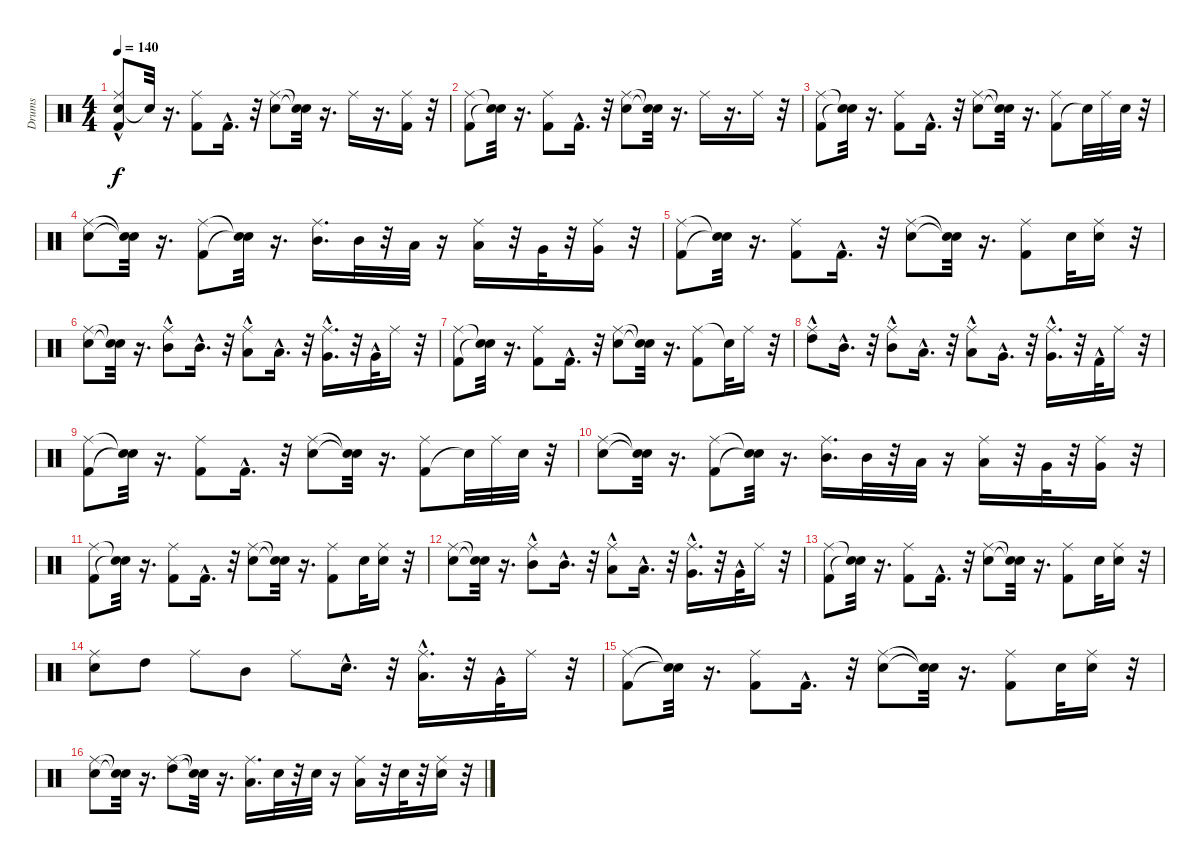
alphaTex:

\track ("Drums" "Drums") {instrument percussion}
\staff {score}
\articulation defaults
\ts (4 4)
\tempo 140
\clef neutral
\ks c
("Snare (hit) 2"{hac} "Ride (middle)" "Kick (hit) 2"{hac}).8{dy f} "Snare (hit)"{t}.32 r.16{d} ("Kick (hit) 2" "Ride (middle)").8 "Kick (hit) 2"{hac}.16{d} r.32 ("Ride (middle)" "Snare (hit) 2").8 ("Snare (hit)"{t} "Snare (hit)"{t}).32 r.16{d} "Ride (middle)".16 r.16{d} ("Kick (hit) 2" "Ride (middle)").16 r.32 |
("Ride (middle)" "Kick (hit) 2").8 ("Snare (hit)"{t} "Snare (hit)"{t}).32 r.16{d} ("Kick (hit) 2" "Ride (middle)").8 "Kick (hit) 2"{hac}.16{d} r.32 ("Ride (middle)" "Snare (hit) 2").8 ("Snare (hit)"{t} "Snare (hit)"{t}).32 r.16{d} "Ride (middle)".16 r.16{d} "Ride (middle)".16 r.32 |
("Kick (hit) 2" "Ride (middle)").8 ("Snare (hit)"{t} "Snare (hit)"{t}).32 r.16{d} ("Ride (middle)" "Kick (hit) 2").8 "Kick (hit) 2"{hac}.16{d} r.32 ("Ride (middle)" "Snare (hit) 2").8 ("Snare (hit)"{t} "Snare (hit)"{t}).32 r.16{d} ("Kick (hit) 2" "Ride (middle)").8 "Snare (hit)"{t}.32 "Ride (middle)".32 "Snare (hit) 2".32 r.32 |
("Ride (middle)" "Snare (hit) 2").8 ("Snare (hit)"{t} "Snare (hit)"{t}).32 r.16{d} ("Ride (middle)" "Kick (hit) 2").8 ("Snare (hit)"{t} "Snare (hit)"{t}).32 r.16{d} ("Ride (middle)" "Mid Tom (hit)").16{d} "Mid Tom (hit)".32 r.32 "Low Tom (hit)".32 r.16 ("Ride (middle)" "Low Tom (hit)").16 r.32 "Very Low Tom (hit)".32 r.32 ("Very Low Tom (hit)" "Ride (middle)").16 r.32 |
("Kick (hit) 2" "Ride (middle)").8 ("Snare (hit)"{t} "Snare (hit)"{t}).32 r.16{d} ("Kick (hit) 2" "Ride (middle)").8 "Kick (hit) 2"{hac}.16{d} r.32 ("Snare (hit) 2" "Ride (middle)").8 ("Snare (hit)"{t} "Snare (hit)"{t}).32 r.16{d} ("Kick (hit) 2" "Ride (middle)").8 "Snare (hit) 2".32 ("Snare (hit) 2" "Ride (middle)").16 r.32 |
("Ride (middle)" "Snare (hit) 2").8 ("Snare (hit)"{t} "Snare (hit)"{t}).32 r.16{d} ("Mid Tom (hit)"{hac} "Ride (middle)").8 "Mid Tom (hit)"{hac}.16{d} r.32 ("Low Tom (hit)"{hac} "Ride (middle)").8 "Low Tom (hit)"{hac}.16{d} r.32 ("Ride (middle)" "Very Low Tom (hit)"{hac}).16{d} r.32 "Very Low Tom (hit)"{hac}.32 "Ride (middle)".16 r.32 |
("Ride (middle)" "Kick (hit) 2").8 ("Snare (hit)"{t} "Snare (hit)"{t}).32 r.16{d} ("Ride (middle)" "Kick (hit) 2").8 "Kick (hit) 2"{hac}.16{d} r.32 ("Ride (middle)" "Snare (hit) 2").8 ("Snare (hit)"{t} "Snare (hit)"{t}).32 r.16{d} ("Ride (middle)" "Kick (hit) 2").8 "Snare (hit)"{t}.32 "Ride (middle)".16 r.32 |
("High Tom (hit)"{hac} "Ride (middle)").8 "Mid Tom (hit)"{hac}.16{d} r.32 ("Mid Tom (hit)"{hac} "Ride (middle)").8 "Low Tom (hit)"{hac}.16{d} r.32 ("Ride (middle)" "Low Tom (hit)"{hac}).8 "Very Low Tom (hit)"{hac}.16{d} r.32 ("Very Low Tom (hit)"{hac} "Ride (middle)").16{d} r.32 "Kick (hit) 2"{hac}.32 "Ride (middle)".16 r.32 |
("Kick (hit) 2" "Ride (middle)").8 ("Snare (hit)"{t} "Snare (hit)"{t}).32 r.16{d} ("Ride (middle)" "Kick (hit) 2").8 "Kick (hit) 2"{hac}.16{d} r.32 ("Snare (hit) 2" "Ride (middle)").8 ("Snare (hit)"{t} "Snare (hit)"{t}).32 r.16{d} ("Kick (hit) 2" "Ride (middle)").8 "Snare (hit)"{t}.32 "Ride (middle)".32 "Snare (hit) 2".32 r.32 |
("Snare (hit) 2" "Ride (middle)").8 ("Snare (hit)"{t} "Snare (hit)"{t}).32 r.16{d} ("Ride (middle)" "Kick (hit) 2").8 ("Snare (hit)"{t} "Snare (hit)"{t}).32 r.16{d} ("Mid Tom (hit)" "Ride (middle)").16{d} "Mid Tom (hit)".32 r.32 "Low Tom (hit)".32 r.16 ("Ride (middle)" "Low Tom (hit)").16 r.32 "Very Low Tom (hit)".32 r.32 ("Ride (middle)" "Very Low Tom (hit)").16 r.32 |
("Kick (hit) 2" "Ride (middle)").8 ("Snare (hit)"{t} "Snare (hit)"{t}).32 r.16{d} ("Kick (hit) 2" "Ride (middle)").8 "Kick (hit) 2"{hac}.16{d} r.32 ("Ride (middle)" "Snare (hit) 2").8 ("Snare (hit)"{t} "Snare (hit)"{t}).32 r.16{d} ("Ride (middle)" "Kick (hit) 2").8 "Snare (hit) 2".32 ("Ride (middle)" "Snare (hit) 2").16 r.32 |
("Ride (middle)" "Snare (hit) 2").8 ("Snare (hit)"{t} "Snare (hit)"{t}).32 r.16{d} ("Ride (middle)" "Mid Tom (hit)"{hac}).8 "Mid Tom (hit)"{hac}.16{d} r.32 ("Low Tom (hit)"{hac} "Ride (middle)").8 "Low Tom (hit)"{hac}.16{d} r.32 ("Ride (middle)" "Very Low Tom (hit)"{hac}).16{d} r.32 "Very Low Tom (hit)"{hac}.32 "Ride (middle)".16 r.32 |
("Ride (middle)" "Kick (hit) 2").8 ("Snare (hit)"{t} "Snare (hit)"{t}).32 r.16{d} ("Kick (hit) 2" "Ride (middle)").8 "Kick (hit) 2"{hac}.16{d} r.32 ("Snare (hit) 2" "Ride (middle)").8 ("Snare (hit)"{t} "Snare (hit)"{t}).32 r.16{d} ("Ride (middle)" "Kick (hit) 2").8 "Snare (hit) 2".32 ("Ride (middle)" "Snare (hit) 2").16 r.32 |
("Ride (middle)" "Snare (hit) 2").8 "High Tom (hit)".8 "Ride (middle)".8 "Mid Tom (hit)".8 "Ride (middle)".8 "Snare (hit) 2"{hac}.16{d} r.32 ("Ride (middle)" "Low Tom (hit)"{hac}).16{d} r.32 "Very Low Tom (hit)"{hac}.32 "Ride (middle)".16 r.32 |
("Ride (middle)" "Kick (hit) 2").8 ("Snare (hit)"{t} "Snare (hit)"{t}).32 r.16{d} ("Ride (middle)" "Kick (hit) 2").8 "Kick (hit) 2"{hac}.16{d} r.32 ("Snare (hit) 2" "Ride (middle)").8 ("Snare (hit)"{t} "Snare (hit)"{t}).32 r.16{d} ("Ride (middle)" "Kick (hit) 2").8 "Snare (hit) 2".32 ("Ride (middle)" "Snare (hit) 2").16 r.32 |
("Snare (hit) 2" "Ride (middle)").8 ("Snare (hit)"{t} "Snare (hit)"{t}).32 r.16{d} ("Ride (middle)" "High Tom (hit)").8 ("Snare (hit)"{t} "Snare (hit)"{t}).32 r.16{d} ("Low Tom (hit)" "Ride (middle)").16{d} "Snare (hit) 2".32 r.32 "Snare (hit) 2".32 r.16 ("Ride (middle)" "Low Tom (hit)").16 r.32 "Snare (hit) 2".32 r.32 ("Ride (middle)" "Snare (hit) 2").16 r.32
